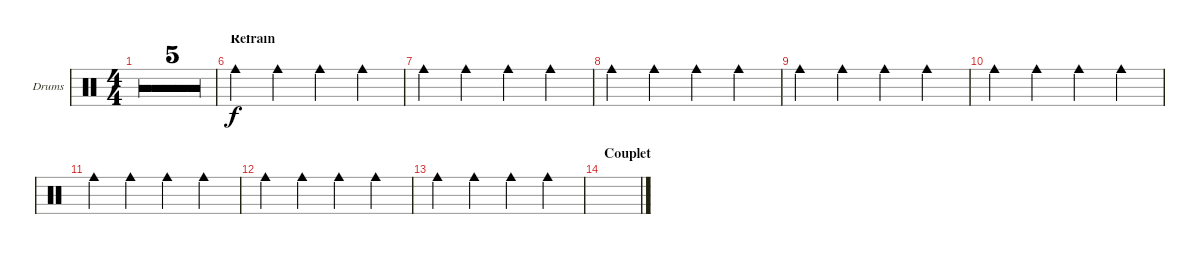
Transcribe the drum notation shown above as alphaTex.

\defaultSystemsLayout 4
\bracketExtendMode groupsimilarinstruments
\firstSystemTrackNameOrientation horizontal
\otherSystemsTrackNameOrientation horizontal
\track ("Cow Bell" "Drums") {multiBarRest instrument percussion}
\staff {score}
\articulation defaults
\ts (4 4)
\tempo 120
\clef neutral
\ks c
|
|
|
|
|
\section ("" "Refrain")
"Cowbell medium (hit)".4{dy f} "Cowbell medium (hit)".4 "Cowbell medium (hit)".4 "Cowbell medium (hit)".4 |
"Cowbell medium (hit)".4 "Cowbell medium (hit)".4 "Cowbell medium (hit)".4 "Cowbell medium (hit)".4 |
"Cowbell medium (hit)".4 "Cowbell medium (hit)".4 "Cowbell medium (hit)".4 "Cowbell medium (hit)".4 |
"Cowbell medium (hit)".4 "Cowbell medium (hit)".4 "Cowbell medium (hit)".4 "Cowbell medium (hit)".4 |
"Cowbell medium (hit)".4 "Cowbell medium (hit)".4 "Cowbell medium (hit)".4 "Cowbell medium (hit)".4 |
"Cowbell medium (hit)".4 "Cowbell medium (hit)".4 "Cowbell medium (hit)".4 "Cowbell medium (hit)".4 |
"Cowbell medium (hit)".4 "Cowbell medium (hit)".4 "Cowbell medium (hit)".4 "Cowbell medium (hit)".4 |
"Cowbell medium (hit)".4 "Cowbell medium (hit)".4 "Cowbell medium (hit)".4 "Cowbell medium (hit)".4 |
\section ("" "Couplet")
